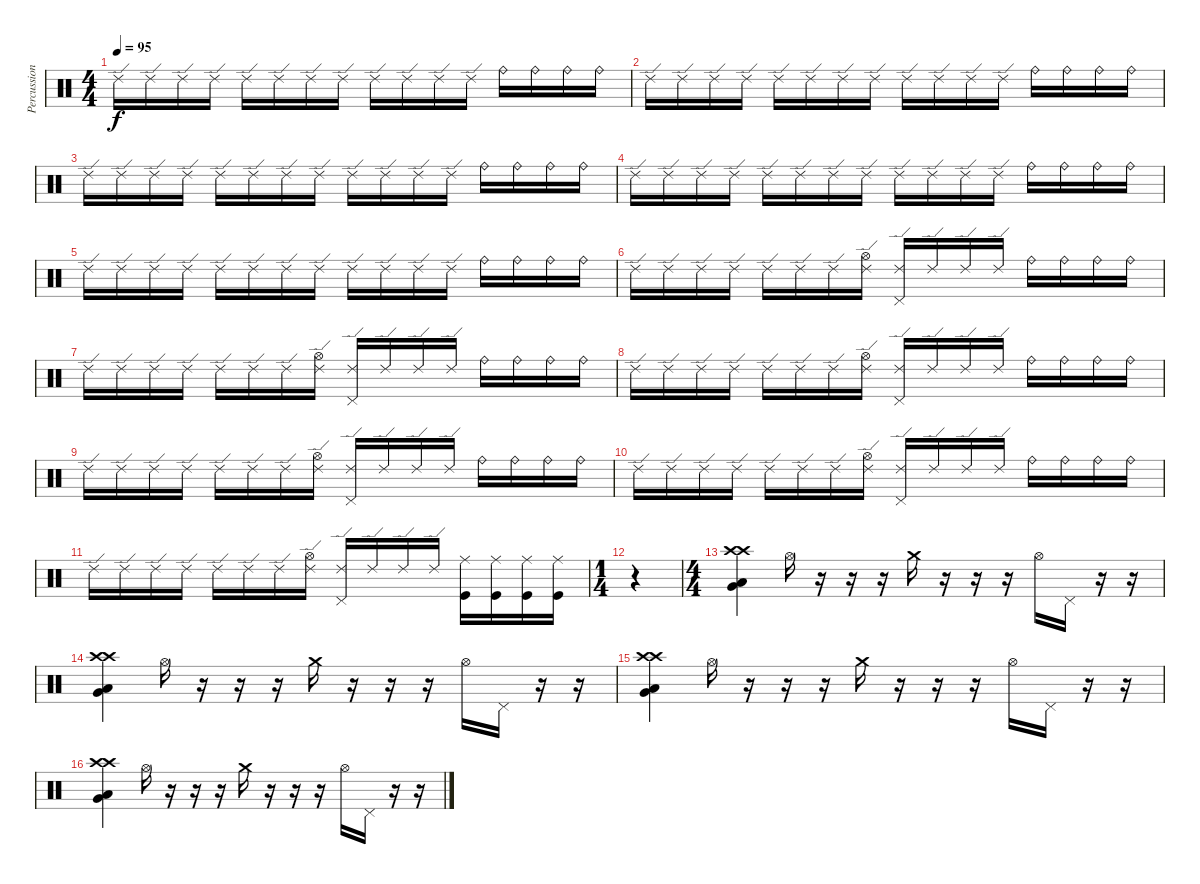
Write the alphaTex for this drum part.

\track ("Percussion" "Percussion") {instrument percussion}
\staff {score}
\articulation defaults
\ts (4 4)
\tempo 95
\clef neutral
\ks c "Ride (edge) 2".16{dy f} "Ride (edge) 2".16 "Ride (edge) 2".16 "Ride (edge) 2".16 "Ride (edge) 2".16 "Ride (edge) 2".16 "Ride (edge) 2".16 "Ride (edge) 2".16 "Ride (edge) 2".16 "Ride (edge) 2".16 "Ride (edge) 2".16 "Ride (edge) 2".16 "Ride (bell)".16 "Ride (bell)".16 "Ride (bell)".16 "Ride (bell)".16
|
"Ride (edge) 2".16 "Ride (edge) 2".16 "Ride (edge) 2".16 "Ride (edge) 2".16 "Ride (edge) 2".16 "Ride (edge) 2".16 "Ride (edge) 2".16 "Ride (edge) 2".16 "Ride (edge) 2".16 "Ride (edge) 2".16 "Ride (edge) 2".16 "Ride (edge) 2".16 "Ride (bell)".16 "Ride (bell)".16 "Ride (bell)".16 "Ride (bell)".16 |
"Ride (edge) 2".16 "Ride (edge) 2".16 "Ride (edge) 2".16 "Ride (edge) 2".16 "Ride (edge) 2".16 "Ride (edge) 2".16 "Ride (edge) 2".16 "Ride (edge) 2".16 "Ride (edge) 2".16 "Ride (edge) 2".16 "Ride (edge) 2".16 "Ride (edge) 2".16 "Ride (bell)".16 "Ride (bell)".16 "Ride (bell)".16 "Ride (bell)".16 |
"Ride (edge) 2".16 "Ride (edge) 2".16 "Ride (edge) 2".16 "Ride (edge) 2".16 "Ride (edge) 2".16 "Ride (edge) 2".16 "Ride (edge) 2".16 "Ride (edge) 2".16 "Ride (edge) 2".16 "Ride (edge) 2".16 "Ride (edge) 2".16 "Ride (edge) 2".16 "Ride (bell)".16 "Ride (bell)".16 "Ride (bell)".16 "Ride (bell)".16 |
"Ride (edge) 2".16 "Ride (edge) 2".16 "Ride (edge) 2".16 "Ride (edge) 2".16 "Ride (edge) 2".16 "Ride (edge) 2".16 "Ride (edge) 2".16 "Ride (edge) 2".16 "Ride (edge) 2".16 "Ride (edge) 2".16 "Ride (edge) 2".16 "Ride (edge) 2".16 "Ride (bell)".16 "Ride (bell)".16 "Ride (bell)".16 "Ride (bell)".16 |
"Ride (edge) 2".16 "Ride (edge) 2".16 "Ride (edge) 2".16 "Ride (edge) 2".16 "Ride (edge) 2".16 "Ride (edge) 2".16 "Ride (edge) 2".16 ("Hi-Hat (open)" "Ride (edge) 2").16 ("Pedal Hi-Hat (hit)" "Ride (edge) 2").16 "Ride (edge) 2".16 "Ride (edge) 2".16 "Ride (edge) 2".16 "Ride (bell)".16 "Ride (bell)".16 "Ride (bell)".16 "Ride (bell)".16 |
"Ride (edge) 2".16 "Ride (edge) 2".16 "Ride (edge) 2".16 "Ride (edge) 2".16 "Ride (edge) 2".16 "Ride (edge) 2".16 "Ride (edge) 2".16 ("Hi-Hat (open)" "Ride (edge) 2").16 ("Pedal Hi-Hat (hit)" "Ride (edge) 2").16 "Ride (edge) 2".16 "Ride (edge) 2".16 "Ride (edge) 2".16 "Ride (bell)".16 "Ride (bell)".16 "Ride (bell)".16 "Ride (bell)".16 |
"Ride (edge) 2".16 "Ride (edge) 2".16 "Ride (edge) 2".16 "Ride (edge) 2".16 "Ride (edge) 2".16 "Ride (edge) 2".16 "Ride (edge) 2".16 ("Hi-Hat (open)" "Ride (edge) 2").16 ("Pedal Hi-Hat (hit)" "Ride (edge) 2").16 "Ride (edge) 2".16 "Ride (edge) 2".16 "Ride (edge) 2".16 "Ride (bell)".16 "Ride (bell)".16 "Ride (bell)".16 "Ride (bell)".16 |
"Ride (edge) 2".16 "Ride (edge) 2".16 "Ride (edge) 2".16 "Ride (edge) 2".16 "Ride (edge) 2".16 "Ride (edge) 2".16 "Ride (edge) 2".16 ("Hi-Hat (open)" "Ride (edge) 2").16 ("Pedal Hi-Hat (hit)" "Ride (edge) 2").16 "Ride (edge) 2".16 "Ride (edge) 2".16 "Ride (edge) 2".16 "Ride (bell)".16 "Ride (bell)".16 "Ride (bell)".16 "Ride (bell)".16 |
"Ride (edge) 2".16 "Ride (edge) 2".16 "Ride (edge) 2".16 "Ride (edge) 2".16 "Ride (edge) 2".16 "Ride (edge) 2".16 "Ride (edge) 2".16 ("Hi-Hat (open)" "Ride (edge) 2").16 ("Pedal Hi-Hat (hit)" "Ride (edge) 2").16 "Ride (edge) 2".16 "Ride (edge) 2".16 "Ride (edge) 2".16 "Ride (bell)".16 "Ride (bell)".16 "Ride (bell)".16 "Ride (bell)".16 |
"Ride (edge) 2".16 "Ride (edge) 2".16 "Ride (edge) 2".16 "Ride (edge) 2".16 "Ride (edge) 2".16 "Ride (edge) 2".16 "Ride (edge) 2".16 ("Hi-Hat (open)" "Ride (edge) 2").16 ("Pedal Hi-Hat (hit)" "Ride (edge) 2").16 "Ride (edge) 2".16 "Ride (edge) 2".16 "Ride (edge) 2".16 ("Ride (middle)" "Kick (hit)").16 ("Ride (middle)" "Kick (hit)").16 ("Ride (middle)" "Kick (hit)").16 ("Ride (middle)" "Kick (hit)").16 |
\ts (1 4)
r.4 |
\ts (4 4)
("Crash high (hit)" "Crash high (hit)" "Very Low Tom (hit)" "Low Floor Tom (hit)").4 "Hi-Hat (open)".16 r.16 r.16 r.16 "Crash medium (hit)".16 r.16 r.16 r.16 "Hi-Hat (open)".16 "Pedal Hi-Hat (hit)".16 r.16 r.16 |
("Crash high (hit)" "Crash high (hit)" "Very Low Tom (hit)" "Low Floor Tom (hit)").4 "Hi-Hat (open)".16 r.16 r.16 r.16 "Crash medium (hit)".16 r.16 r.16 r.16 "Hi-Hat (open)".16 "Pedal Hi-Hat (hit)".16 r.16 r.16 |
("Crash high (hit)" "Crash high (hit)" "Very Low Tom (hit)" "Low Floor Tom (hit)").4 "Hi-Hat (open)".16 r.16 r.16 r.16 "Crash medium (hit)".16 r.16 r.16 r.16 "Hi-Hat (open)".16 "Pedal Hi-Hat (hit)".16 r.16 r.16 |
("Crash high (hit)" "Crash high (hit)" "Very Low Tom (hit)" "Low Floor Tom (hit)").4 "Hi-Hat (open)".16 r.16 r.16 r.16 "Crash medium (hit)".16 r.16 r.16 r.16 "Hi-Hat (open)".16 "Pedal Hi-Hat (hit)".16 r.16 r.16
